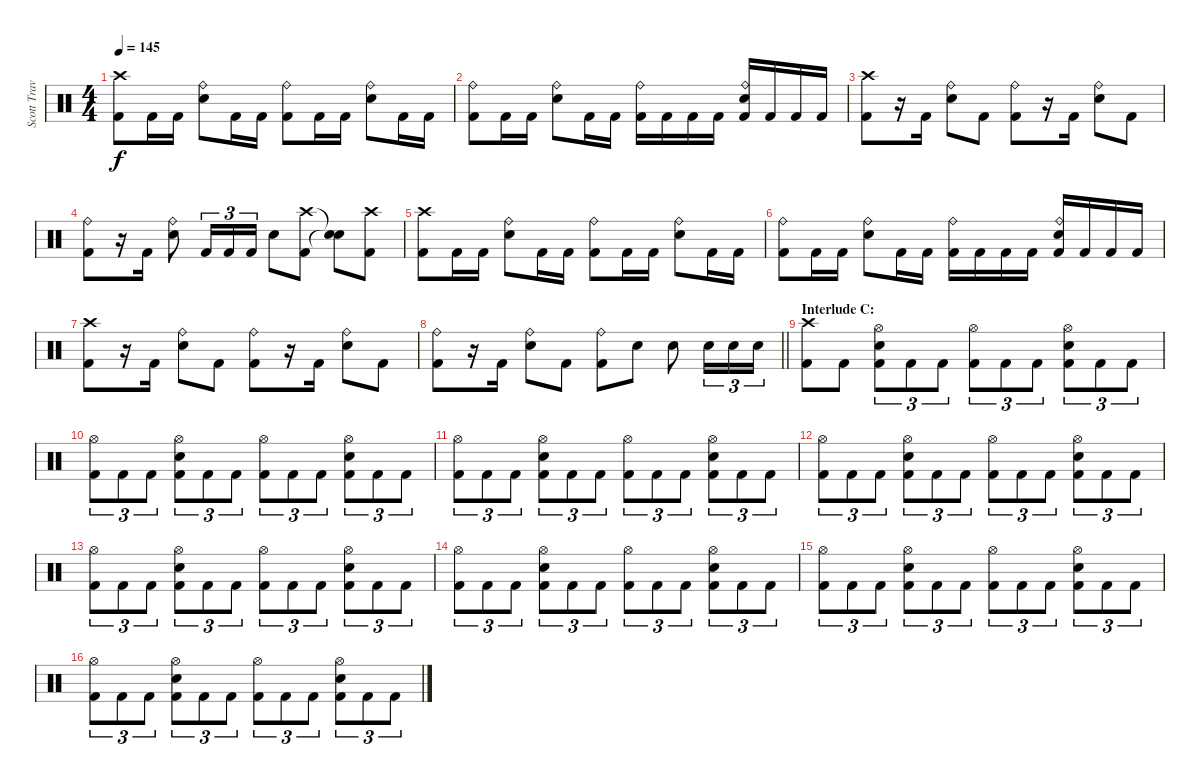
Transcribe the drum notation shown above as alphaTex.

\track ("Scott Travis" "Scott Trav") {instrument percussion}
\staff {score}
\articulation defaults
\ts (4 4)
\tempo 145
\clef neutral
\ks c
("Crash high (hit)" "Kick (hit) 2").8{dy f} "Kick (hit) 2".16 "Kick (hit) 2".16 ("Ride (bell)" "Snare (hit) 2").8 "Kick (hit) 2".16 "Kick (hit) 2".16 ("Ride (bell)" "Kick (hit) 2").8 "Kick (hit) 2".16 "Kick (hit) 2".16 ("Ride (bell)" "Snare (hit) 2").8 "Kick (hit) 2".16 "Kick (hit) 2".16 |
("Ride (bell)" "Kick (hit) 2").8 "Kick (hit) 2".16 "Kick (hit) 2".16 ("Ride (bell)" "Snare (hit) 2").8 "Kick (hit) 2".16 "Kick (hit) 2".16 ("Ride (bell)" "Kick (hit) 2").16 "Kick (hit) 2".16 "Kick (hit) 2".16 "Kick (hit) 2".16 ("Ride (bell)" "Snare (hit) 2" "Kick (hit) 2").16 "Kick (hit) 2".16 "Kick (hit) 2".16 "Kick (hit) 2".16 |
("Crash high (hit)" "Kick (hit) 2").8 r.16 "Kick (hit) 2".16 ("Ride (bell)" "Snare (hit) 2").8 "Kick (hit) 2".8 ("Ride (bell)" "Kick (hit) 2").8 r.16 "Kick (hit) 2".16 ("Ride (bell)" "Snare (hit) 2").8 "Kick (hit) 2".8 |
("Ride (bell)" "Kick (hit) 2").8 r.16 "Kick (hit) 2".16 ("Ride (bell)" "Snare (hit) 2").8 "Kick (hit) 2".16{tu (3 2)} "Kick (hit) 2".16{tu (3 2)} "Kick (hit) 2".16{tu (3 2)} "Snare (hit) 2".8 ("Crash high (hit)" "Kick (hit) 2").8 ("Snare (hit)"{t} "Snare (hit)"{t}).8 ("Crash high (hit)" "Kick (hit) 2").8 |
("Crash high (hit)" "Kick (hit) 2").8 "Kick (hit) 2".16 "Kick (hit) 2".16 ("Ride (bell)" "Snare (hit) 2").8 "Kick (hit) 2".16 "Kick (hit) 2".16 ("Ride (bell)" "Kick (hit) 2").8 "Kick (hit) 2".16 "Kick (hit) 2".16 ("Ride (bell)" "Snare (hit) 2").8 "Kick (hit) 2".16 "Kick (hit) 2".16 |
("Ride (bell)" "Kick (hit) 2").8 "Kick (hit) 2".16 "Kick (hit) 2".16 ("Ride (bell)" "Snare (hit) 2").8 "Kick (hit) 2".16 "Kick (hit) 2".16 ("Ride (bell)" "Kick (hit) 2").16 "Kick (hit) 2".16 "Kick (hit) 2".16 "Kick (hit) 2".16 ("Ride (bell)" "Snare (hit) 2" "Kick (hit) 2").16 "Kick (hit) 2".16 "Kick (hit) 2".16 "Kick (hit) 2".16 |
("Crash high (hit)" "Kick (hit) 2").8 r.16 "Kick (hit) 2".16 ("Ride (bell)" "Snare (hit) 2").8 "Kick (hit) 2".8 ("Ride (bell)" "Kick (hit) 2").8 r.16 "Kick (hit) 2".16 ("Ride (bell)" "Snare (hit) 2").8 "Kick (hit) 2".8 |
\barLineRight lightlight
("Ride (bell)" "Kick (hit) 2").8 r.16 "Kick (hit) 2".16 ("Ride (bell)" "Snare (hit) 2").8 "Kick (hit) 2".8 ("Ride (bell)" "Kick (hit) 2").8 "Snare (hit) 2".8 "Snare (hit) 2".8 "Snare (hit) 2".16{tu (3 2)} "Snare (hit) 2".16{tu (3 2)} "Snare (hit) 2".16{tu (3 2)} |
\section ("" "Interlude C:")
("Crash high (hit)" "Kick (hit) 2").8 "Kick (hit) 2".8 ("Hi-Hat (open)" "Snare (hit) 2" "Kick (hit) 2").8{tu (3 2)} "Kick (hit) 2".8{tu (3 2)} "Kick (hit) 2".8{tu (3 2)} ("Hi-Hat (open)" "Kick (hit) 2").8{tu (3 2)} "Kick (hit) 2".8{tu (3 2)} "Kick (hit) 2".8{tu (3 2)} ("Hi-Hat (open)" "Snare (hit) 2" "Kick (hit) 2").8{tu (3 2)} "Kick (hit) 2".8{tu (3 2)} "Kick (hit) 2".8{tu (3 2)} |
("Hi-Hat (open)" "Kick (hit) 2").8{tu (3 2)} "Kick (hit) 2".8{tu (3 2)} "Kick (hit) 2".8{tu (3 2)} ("Hi-Hat (open)" "Snare (hit) 2" "Kick (hit) 2").8{tu (3 2)} "Kick (hit) 2".8{tu (3 2)} "Kick (hit) 2".8{tu (3 2)} ("Hi-Hat (open)" "Kick (hit) 2").8{tu (3 2)} "Kick (hit) 2".8{tu (3 2)} "Kick (hit) 2".8{tu (3 2)} ("Hi-Hat (open)" "Snare (hit) 2" "Kick (hit) 2").8{tu (3 2)} "Kick (hit) 2".8{tu (3 2)} "Kick (hit) 2".8{tu (3 2)} |
("Hi-Hat (open)" "Kick (hit) 2").8{tu (3 2)} "Kick (hit) 2".8{tu (3 2)} "Kick (hit) 2".8{tu (3 2)} ("Hi-Hat (open)" "Snare (hit) 2" "Kick (hit) 2").8{tu (3 2)} "Kick (hit) 2".8{tu (3 2)} "Kick (hit) 2".8{tu (3 2)} ("Hi-Hat (open)" "Kick (hit) 2").8{tu (3 2)} "Kick (hit) 2".8{tu (3 2)} "Kick (hit) 2".8{tu (3 2)} ("Hi-Hat (open)" "Snare (hit) 2" "Kick (hit) 2").8{tu (3 2)} "Kick (hit) 2".8{tu (3 2)} "Kick (hit) 2".8{tu (3 2)} |
("Hi-Hat (open)" "Kick (hit) 2").8{tu (3 2)} "Kick (hit) 2".8{tu (3 2)} "Kick (hit) 2".8{tu (3 2)} ("Hi-Hat (open)" "Snare (hit) 2" "Kick (hit) 2").8{tu (3 2)} "Kick (hit) 2".8{tu (3 2)} "Kick (hit) 2".8{tu (3 2)} ("Hi-Hat (open)" "Kick (hit) 2").8{tu (3 2)} "Kick (hit) 2".8{tu (3 2)} "Kick (hit) 2".8{tu (3 2)} ("Hi-Hat (open)" "Snare (hit) 2" "Kick (hit) 2").8{tu (3 2)} "Kick (hit) 2".8{tu (3 2)} "Kick (hit) 2".8{tu (3 2)} |
("Hi-Hat (open)" "Kick (hit) 2").8{tu (3 2)} "Kick (hit) 2".8{tu (3 2)} "Kick (hit) 2".8{tu (3 2)} ("Hi-Hat (open)" "Snare (hit) 2" "Kick (hit) 2").8{tu (3 2)} "Kick (hit) 2".8{tu (3 2)} "Kick (hit) 2".8{tu (3 2)} ("Hi-Hat (open)" "Kick (hit) 2").8{tu (3 2)} "Kick (hit) 2".8{tu (3 2)} "Kick (hit) 2".8{tu (3 2)} ("Hi-Hat (open)" "Snare (hit) 2" "Kick (hit) 2").8{tu (3 2)} "Kick (hit) 2".8{tu (3 2)} "Kick (hit) 2".8{tu (3 2)} |
("Hi-Hat (open)" "Kick (hit) 2").8{tu (3 2)} "Kick (hit) 2".8{tu (3 2)} "Kick (hit) 2".8{tu (3 2)} ("Hi-Hat (open)" "Snare (hit) 2" "Kick (hit) 2").8{tu (3 2)} "Kick (hit) 2".8{tu (3 2)} "Kick (hit) 2".8{tu (3 2)} ("Hi-Hat (open)" "Kick (hit) 2").8{tu (3 2)} "Kick (hit) 2".8{tu (3 2)} "Kick (hit) 2".8{tu (3 2)} ("Hi-Hat (open)" "Snare (hit) 2" "Kick (hit) 2").8{tu (3 2)} "Kick (hit) 2".8{tu (3 2)} "Kick (hit) 2".8{tu (3 2)} |
("Hi-Hat (open)" "Kick (hit) 2").8{tu (3 2)} "Kick (hit) 2".8{tu (3 2)} "Kick (hit) 2".8{tu (3 2)} ("Hi-Hat (open)" "Snare (hit) 2" "Kick (hit) 2").8{tu (3 2)} "Kick (hit) 2".8{tu (3 2)} "Kick (hit) 2".8{tu (3 2)} ("Hi-Hat (open)" "Kick (hit) 2").8{tu (3 2)} "Kick (hit) 2".8{tu (3 2)} "Kick (hit) 2".8{tu (3 2)} ("Hi-Hat (open)" "Snare (hit) 2" "Kick (hit) 2").8{tu (3 2)} "Kick (hit) 2".8{tu (3 2)} "Kick (hit) 2".8{tu (3 2)} |
("Hi-Hat (open)" "Kick (hit) 2").8{tu (3 2)} "Kick (hit) 2".8{tu (3 2)} "Kick (hit) 2".8{tu (3 2)} ("Hi-Hat (open)" "Snare (hit) 2" "Kick (hit) 2").8{tu (3 2)} "Kick (hit) 2".8{tu (3 2)} "Kick (hit) 2".8{tu (3 2)} ("Hi-Hat (open)" "Kick (hit) 2").8{tu (3 2)} "Kick (hit) 2".8{tu (3 2)} "Kick (hit) 2".8{tu (3 2)} ("Hi-Hat (open)" "Snare (hit) 2" "Kick (hit) 2").8{tu (3 2)} "Kick (hit) 2".8{tu (3 2)} "Kick (hit) 2".8{tu (3 2)}
